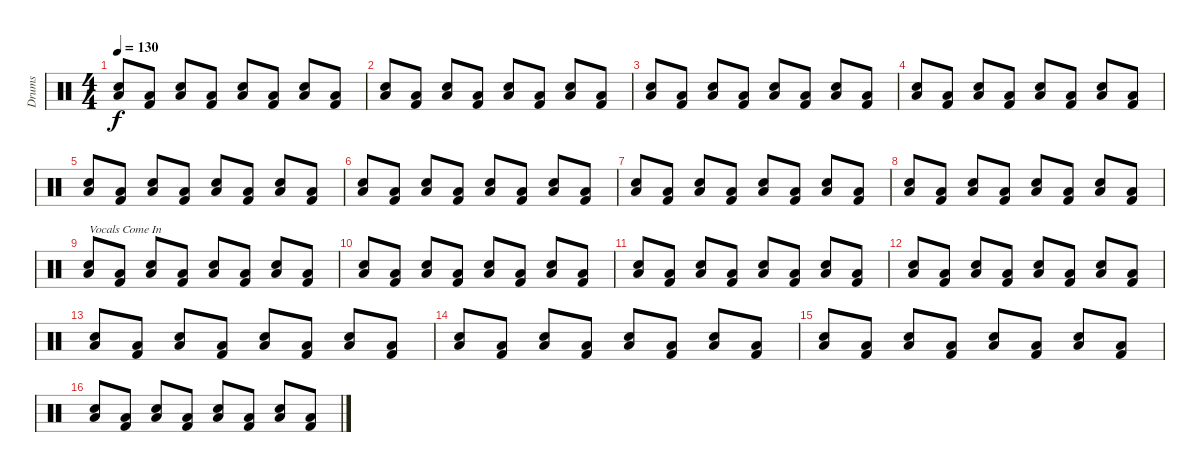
\track ("Drums" "Drums") {instrument percussion}
\staff {score}
\articulation defaults
\ts (4 4)
\tempo 130
\clef neutral
\ks c
("Snare (hit) 2" "Low Floor Tom (hit)").8{dy f} ("Low Floor Tom (hit)" "Kick (hit) 2").8 ("Snare (hit) 2" "Low Floor Tom (hit)").8 ("Kick (hit) 2" "Low Floor Tom (hit)").8 ("Snare (hit) 2" "Low Floor Tom (hit)").8 ("Kick (hit) 2" "Low Floor Tom (hit)").8 ("Snare (hit) 2" "Low Floor Tom (hit)").8 ("Kick (hit) 2" "Low Floor Tom (hit)").8 |
("Snare (hit) 2" "Low Floor Tom (hit)").8 ("Low Floor Tom (hit)" "Kick (hit) 2").8 ("Snare (hit) 2" "Low Floor Tom (hit)").8 ("Kick (hit) 2" "Low Floor Tom (hit)").8 ("Snare (hit) 2" "Low Floor Tom (hit)").8 ("Kick (hit) 2" "Low Floor Tom (hit)").8 ("Snare (hit) 2" "Low Floor Tom (hit)").8 ("Kick (hit) 2" "Low Floor Tom (hit)").8 |
("Snare (hit) 2" "Low Floor Tom (hit)").8 ("Low Floor Tom (hit)" "Kick (hit) 2").8 ("Snare (hit) 2" "Low Floor Tom (hit)").8 ("Kick (hit) 2" "Low Floor Tom (hit)").8 ("Snare (hit) 2" "Low Floor Tom (hit)").8 ("Kick (hit) 2" "Low Floor Tom (hit)").8 ("Snare (hit) 2" "Low Floor Tom (hit)").8 ("Kick (hit) 2" "Low Floor Tom (hit)").8 |
("Snare (hit) 2" "Low Floor Tom (hit)").8 ("Low Floor Tom (hit)" "Kick (hit) 2").8 ("Snare (hit) 2" "Low Floor Tom (hit)").8 ("Kick (hit) 2" "Low Floor Tom (hit)").8 ("Snare (hit) 2" "Low Floor Tom (hit)").8 ("Kick (hit) 2" "Low Floor Tom (hit)").8 ("Snare (hit) 2" "Low Floor Tom (hit)").8 ("Kick (hit) 2" "Low Floor Tom (hit)").8 |
("Snare (hit) 2" "Low Floor Tom (hit)").8 ("Low Floor Tom (hit)" "Kick (hit) 2").8 ("Snare (hit) 2" "Low Floor Tom (hit)").8 ("Kick (hit) 2" "Low Floor Tom (hit)").8 ("Snare (hit) 2" "Low Floor Tom (hit)").8 ("Kick (hit) 2" "Low Floor Tom (hit)").8 ("Snare (hit) 2" "Low Floor Tom (hit)").8 ("Kick (hit) 2" "Low Floor Tom (hit)").8 |
("Snare (hit) 2" "Low Floor Tom (hit)").8 ("Low Floor Tom (hit)" "Kick (hit) 2").8 ("Snare (hit) 2" "Low Floor Tom (hit)").8 ("Kick (hit) 2" "Low Floor Tom (hit)").8 ("Snare (hit) 2" "Low Floor Tom (hit)").8 ("Kick (hit) 2" "Low Floor Tom (hit)").8 ("Snare (hit) 2" "Low Floor Tom (hit)").8 ("Kick (hit) 2" "Low Floor Tom (hit)").8 |
("Snare (hit) 2" "Low Floor Tom (hit)").8 ("Low Floor Tom (hit)" "Kick (hit) 2").8 ("Snare (hit) 2" "Low Floor Tom (hit)").8 ("Kick (hit) 2" "Low Floor Tom (hit)").8 ("Snare (hit) 2" "Low Floor Tom (hit)").8 ("Kick (hit) 2" "Low Floor Tom (hit)").8 ("Snare (hit) 2" "Low Floor Tom (hit)").8 ("Kick (hit) 2" "Low Floor Tom (hit)").8 |
("Snare (hit) 2" "Low Floor Tom (hit)").8 ("Low Floor Tom (hit)" "Kick (hit) 2").8 ("Snare (hit) 2" "Low Floor Tom (hit)").8 ("Kick (hit) 2" "Low Floor Tom (hit)").8 ("Snare (hit) 2" "Low Floor Tom (hit)").8 ("Kick (hit) 2" "Low Floor Tom (hit)").8 ("Snare (hit) 2" "Low Floor Tom (hit)").8 ("Kick (hit) 2" "Low Floor Tom (hit)").8 |
("Snare (hit) 2" "Low Floor Tom (hit)").8{txt "Vocals Come In"} ("Low Floor Tom (hit)" "Kick (hit) 2").8 ("Snare (hit) 2" "Low Floor Tom (hit)").8 ("Kick (hit) 2" "Low Floor Tom (hit)").8 ("Snare (hit) 2" "Low Floor Tom (hit)").8 ("Kick (hit) 2" "Low Floor Tom (hit)").8 ("Snare (hit) 2" "Low Floor Tom (hit)").8 ("Kick (hit) 2" "Low Floor Tom (hit)").8 |
("Snare (hit) 2" "Low Floor Tom (hit)").8 ("Low Floor Tom (hit)" "Kick (hit) 2").8 ("Snare (hit) 2" "Low Floor Tom (hit)").8 ("Kick (hit) 2" "Low Floor Tom (hit)").8 ("Snare (hit) 2" "Low Floor Tom (hit)").8 ("Kick (hit) 2" "Low Floor Tom (hit)").8 ("Snare (hit) 2" "Low Floor Tom (hit)").8 ("Kick (hit) 2" "Low Floor Tom (hit)").8 |
("Snare (hit) 2" "Low Floor Tom (hit)").8 ("Low Floor Tom (hit)" "Kick (hit) 2").8 ("Snare (hit) 2" "Low Floor Tom (hit)").8 ("Kick (hit) 2" "Low Floor Tom (hit)").8 ("Snare (hit) 2" "Low Floor Tom (hit)").8 ("Kick (hit) 2" "Low Floor Tom (hit)").8 ("Snare (hit) 2" "Low Floor Tom (hit)").8 ("Kick (hit) 2" "Low Floor Tom (hit)").8 |
("Snare (hit) 2" "Low Floor Tom (hit)").8 ("Low Floor Tom (hit)" "Kick (hit) 2").8 ("Snare (hit) 2" "Low Floor Tom (hit)").8 ("Kick (hit) 2" "Low Floor Tom (hit)").8 ("Snare (hit) 2" "Low Floor Tom (hit)").8 ("Kick (hit) 2" "Low Floor Tom (hit)").8 ("Snare (hit) 2" "Low Floor Tom (hit)").8 ("Kick (hit) 2" "Low Floor Tom (hit)").8 |
("Snare (hit) 2" "Low Floor Tom (hit)").8 ("Low Floor Tom (hit)" "Kick (hit) 2").8 ("Snare (hit) 2" "Low Floor Tom (hit)").8 ("Kick (hit) 2" "Low Floor Tom (hit)").8 ("Snare (hit) 2" "Low Floor Tom (hit)").8 ("Kick (hit) 2" "Low Floor Tom (hit)").8 ("Snare (hit) 2" "Low Floor Tom (hit)").8 ("Kick (hit) 2" "Low Floor Tom (hit)").8 |
("Snare (hit) 2" "Low Floor Tom (hit)").8 ("Low Floor Tom (hit)" "Kick (hit) 2").8 ("Snare (hit) 2" "Low Floor Tom (hit)").8 ("Kick (hit) 2" "Low Floor Tom (hit)").8 ("Snare (hit) 2" "Low Floor Tom (hit)").8 ("Kick (hit) 2" "Low Floor Tom (hit)").8 ("Snare (hit) 2" "Low Floor Tom (hit)").8 ("Kick (hit) 2" "Low Floor Tom (hit)").8 |
("Snare (hit) 2" "Low Floor Tom (hit)").8 ("Low Floor Tom (hit)" "Kick (hit) 2").8 ("Snare (hit) 2" "Low Floor Tom (hit)").8 ("Kick (hit) 2" "Low Floor Tom (hit)").8 ("Snare (hit) 2" "Low Floor Tom (hit)").8 ("Kick (hit) 2" "Low Floor Tom (hit)").8 ("Snare (hit) 2" "Low Floor Tom (hit)").8 ("Kick (hit) 2" "Low Floor Tom (hit)").8 |
("Snare (hit) 2" "Low Floor Tom (hit)").8 ("Low Floor Tom (hit)" "Kick (hit) 2").8 ("Snare (hit) 2" "Low Floor Tom (hit)").8 ("Kick (hit) 2" "Low Floor Tom (hit)").8 ("Snare (hit) 2" "Low Floor Tom (hit)").8 ("Kick (hit) 2" "Low Floor Tom (hit)").8 ("Snare (hit) 2" "Low Floor Tom (hit)").8 ("Kick (hit) 2" "Low Floor Tom (hit)").8
